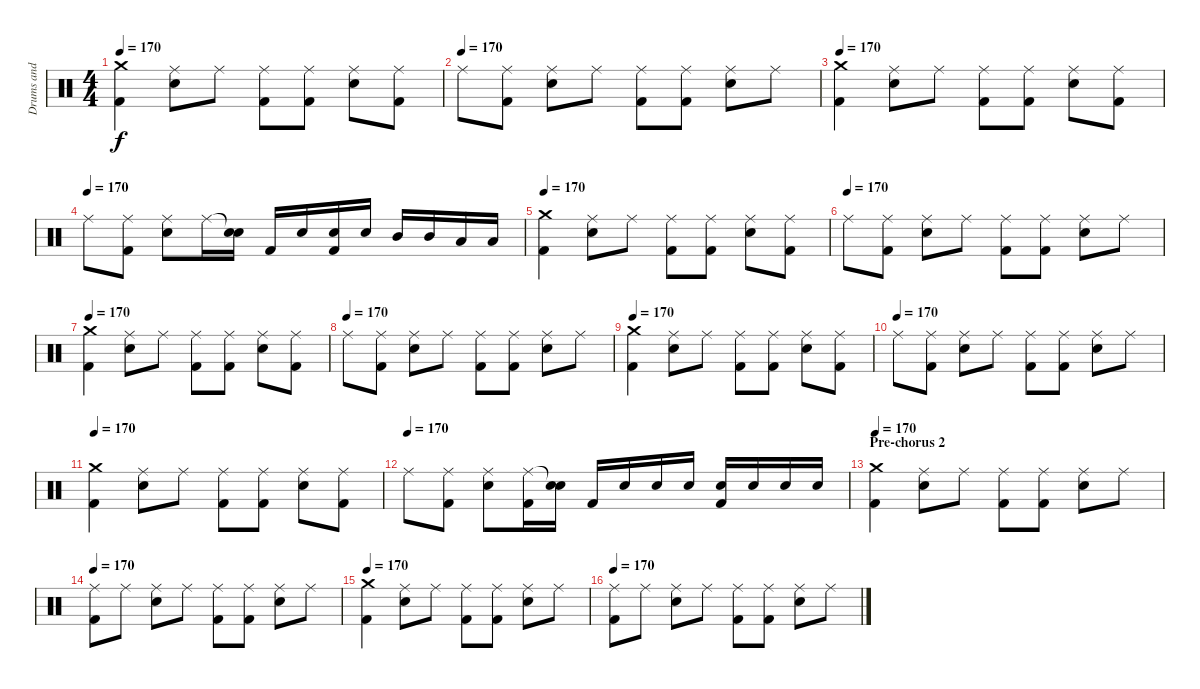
\track ("Drums and Percussion" "Drums and ") {instrument percussion}
\staff {score}
\articulation defaults
\ts (4 4)
\tempo 170
\clef neutral
\ks c
("Crash medium (hit)" "Kick (hit) 2").4{dy f} ("Ride (middle)" "Electric Snare (hit)").8 "Ride (middle)".8 ("Ride (middle)" "Kick (hit) 2").8 ("Ride (middle)" "Kick (hit) 2").8 ("Ride (middle)" "Electric Snare (hit)").8 ("Ride (middle)" "Kick (hit) 2").8 |
\tempo (170)
"Ride (middle)".8 ("Ride (middle)" "Kick (hit) 2").8 ("Ride (middle)" "Electric Snare (hit)").8 "Ride (middle)".8 ("Ride (middle)" "Kick (hit) 2").8 ("Ride (middle)" "Kick (hit) 2").8 ("Ride (middle)" "Electric Snare (hit)").8 "Ride (middle)".8 |
\tempo 170
("Crash medium (hit)" "Kick (hit) 2").4 ("Ride (middle)" "Electric Snare (hit)").8 "Ride (middle)".8 ("Ride (middle)" "Kick (hit) 2").8 ("Ride (middle)" "Kick (hit) 2").8 ("Ride (middle)" "Electric Snare (hit)").8 ("Ride (middle)" "Kick (hit) 2").8 |
\tempo (170)
"Ride (middle)".8 ("Ride (middle)" "Kick (hit) 2").8 ("Ride (middle)" "Electric Snare (hit)").8 "Ride (middle)".16 ("Snare (hit)"{t} "Electric Snare (hit)").16 "Kick (hit) 2".16 "Electric Snare (hit)".16 ("Electric Snare (hit)" "Kick (hit) 2").16 "Electric Snare (hit)".16 "Mid Tom (hit)".16 "Mid Tom (hit)".16 "Low Tom (hit)".16 "Low Tom (hit)".16 |
\tempo 170
("Crash medium (hit)" "Kick (hit) 2").4 ("Ride (middle)" "Electric Snare (hit)").8 "Ride (middle)".8 ("Ride (middle)" "Kick (hit) 2").8 ("Ride (middle)" "Kick (hit) 2").8 ("Ride (middle)" "Electric Snare (hit)").8 ("Ride (middle)" "Kick (hit) 2").8 |
\tempo (170)
"Ride (middle)".8 ("Ride (middle)" "Kick (hit) 2").8 ("Ride (middle)" "Electric Snare (hit)").8 "Ride (middle)".8 ("Ride (middle)" "Kick (hit) 2").8 ("Ride (middle)" "Kick (hit) 2").8 ("Ride (middle)" "Electric Snare (hit)").8 "Ride (middle)".8 |
\tempo 170
("Crash medium (hit)" "Kick (hit) 2").4 ("Ride (middle)" "Electric Snare (hit)").8 "Ride (middle)".8 ("Ride (middle)" "Kick (hit) 2").8 ("Ride (middle)" "Kick (hit) 2").8 ("Ride (middle)" "Electric Snare (hit)").8 ("Ride (middle)" "Kick (hit) 2").8 |
\tempo (170)
"Ride (middle)".8 ("Ride (middle)" "Kick (hit) 2").8 ("Ride (middle)" "Electric Snare (hit)").8 "Ride (middle)".8 ("Ride (middle)" "Kick (hit) 2").8 ("Ride (middle)" "Kick (hit) 2").8 ("Ride (middle)" "Electric Snare (hit)").8 "Ride (middle)".8 |
\tempo 170
("Crash medium (hit)" "Kick (hit) 2").4 ("Ride (middle)" "Electric Snare (hit)").8 "Ride (middle)".8 ("Ride (middle)" "Kick (hit) 2").8 ("Ride (middle)" "Kick (hit) 2").8 ("Ride (middle)" "Electric Snare (hit)").8 ("Ride (middle)" "Kick (hit) 2").8 |
\tempo (170)
"Ride (middle)".8 ("Ride (middle)" "Kick (hit) 2").8 ("Ride (middle)" "Electric Snare (hit)").8 "Ride (middle)".8 ("Ride (middle)" "Kick (hit) 2").8 ("Ride (middle)" "Kick (hit) 2").8 ("Ride (middle)" "Electric Snare (hit)").8 "Ride (middle)".8 |
\tempo 170
("Crash medium (hit)" "Kick (hit) 2").4 ("Ride (middle)" "Electric Snare (hit)").8 "Ride (middle)".8 ("Ride (middle)" "Kick (hit) 2").8 ("Ride (middle)" "Kick (hit) 2").8 ("Ride (middle)" "Electric Snare (hit)").8 ("Ride (middle)" "Kick (hit) 2").8 |
\tempo (170)
"Ride (middle)".8 ("Ride (middle)" "Kick (hit) 2").8 ("Ride (middle)" "Electric Snare (hit)").8 ("Ride (middle)" "Kick (hit) 2").16 ("Snare (hit)"{t} "Electric Snare (hit)").16 "Kick (hit) 2".16 "Electric Snare (hit)".16 "Electric Snare (hit)".16 "Electric Snare (hit)".16 ("Electric Snare (hit)" "Kick (hit) 2").16 "Electric Snare (hit)".16 "Electric Snare (hit)".16 "Electric Snare (hit)".16 |
\section ("" "Pre-chorus 2")
\tempo 170
("Crash medium (hit)" "Kick (hit) 2").4 ("Ride (middle)" "Electric Snare (hit)").8 "Ride (middle)".8 ("Ride (middle)" "Kick (hit) 2").8 ("Ride (middle)" "Kick (hit) 2").8 ("Ride (middle)" "Electric Snare (hit)").8 "Ride (middle)".8 |
\tempo 170
("Ride (middle)" "Kick (hit) 2").8 "Ride (middle)".8 ("Ride (middle)" "Electric Snare (hit)").8 "Ride (middle)".8 ("Ride (middle)" "Kick (hit) 2").8 ("Ride (middle)" "Kick (hit) 2").8 ("Ride (middle)" "Electric Snare (hit)").8 "Ride (middle)".8 |
\tempo 170
("Crash medium (hit)" "Kick (hit) 2").4 ("Ride (middle)" "Electric Snare (hit)").8 "Ride (middle)".8 ("Ride (middle)" "Kick (hit) 2").8 ("Ride (middle)" "Kick (hit) 2").8 ("Ride (middle)" "Electric Snare (hit)").8 "Ride (middle)".8 |
\tempo 170
("Ride (middle)" "Kick (hit) 2").8 "Ride (middle)".8 ("Ride (middle)" "Electric Snare (hit)").8 "Ride (middle)".8 ("Ride (middle)" "Kick (hit) 2").8 ("Ride (middle)" "Kick (hit) 2").8 ("Ride (middle)" "Electric Snare (hit)").8 "Ride (middle)".8
